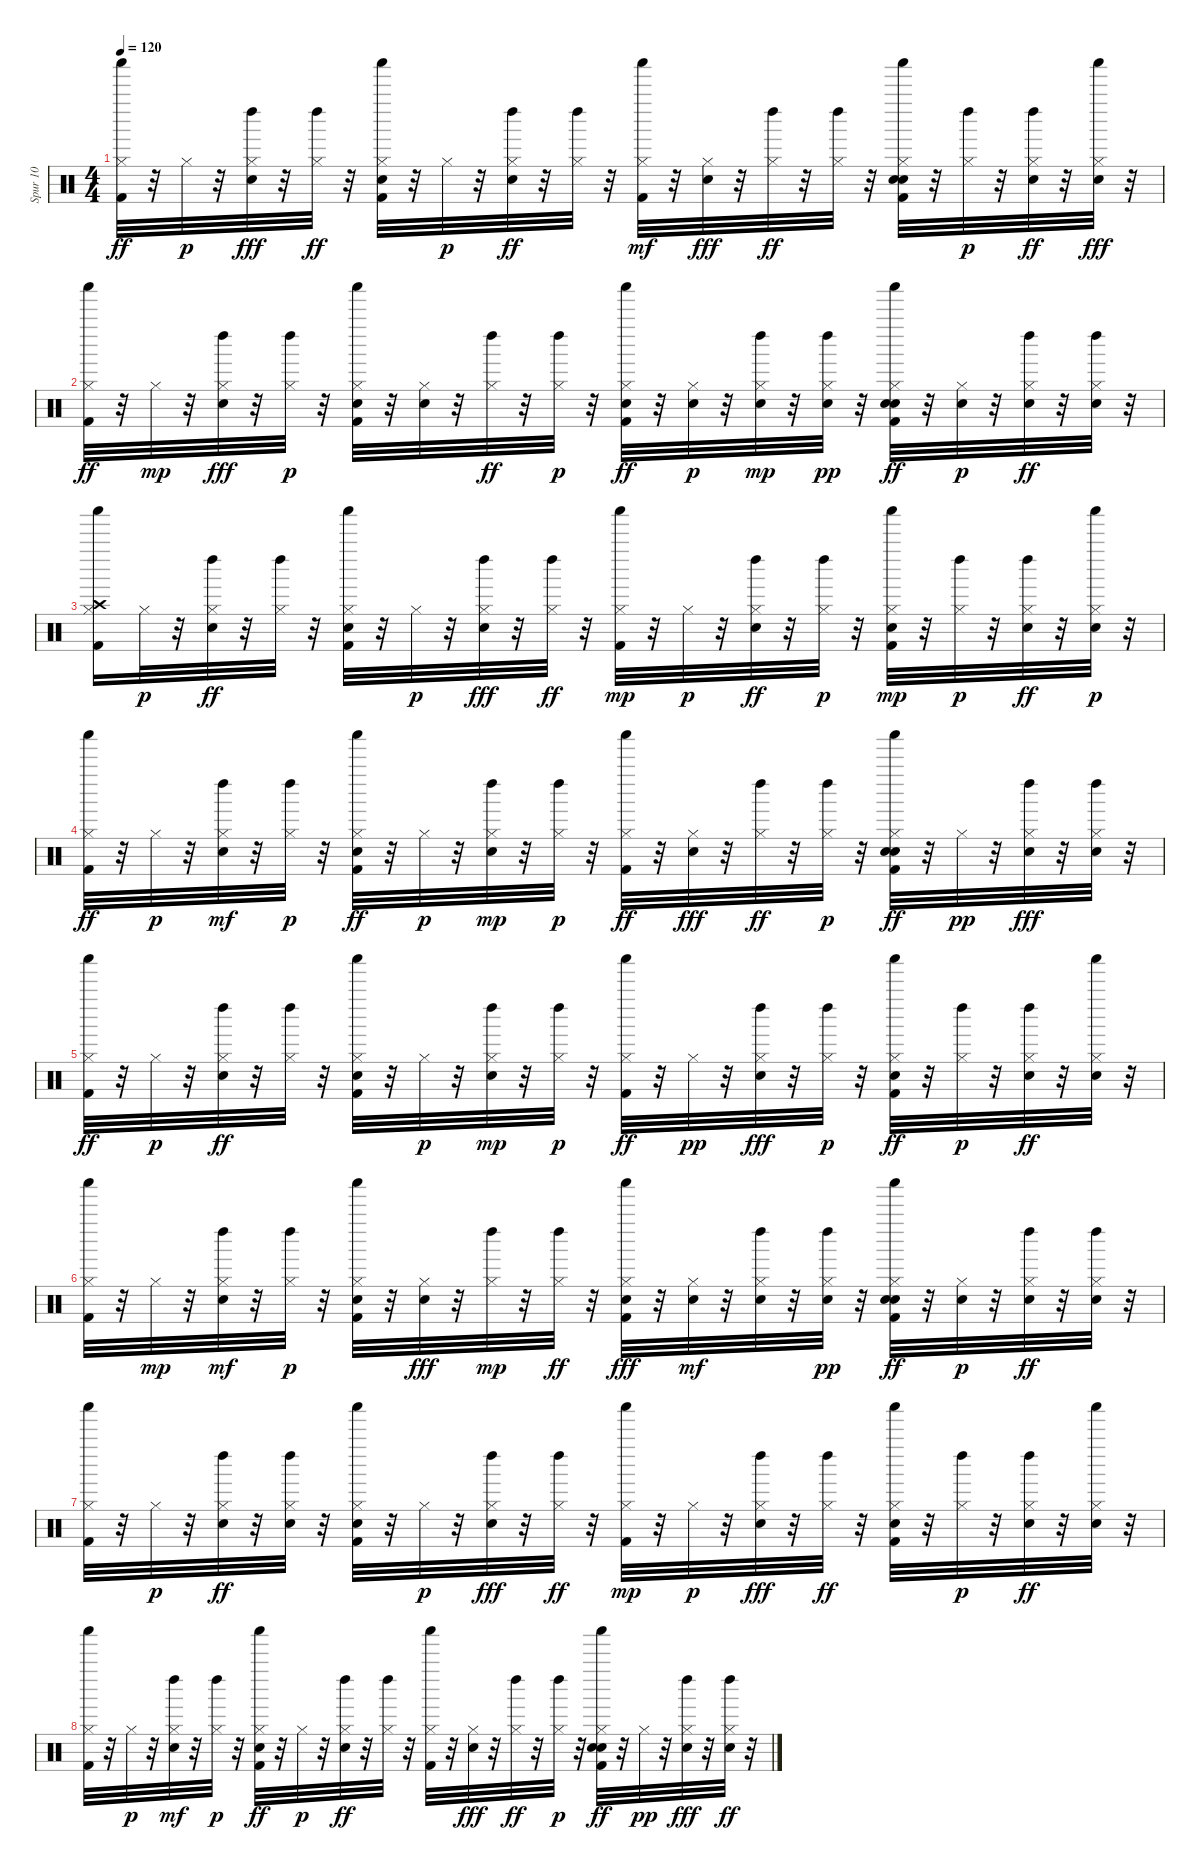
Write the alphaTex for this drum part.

\track ("Spur 10" "Spur 10") {instrument percussion}
\staff {score}
\articulation defaults
\ts (4 4)
\tempo 120
\clef neutral
\ks c
("Kick (hit) 2" "Hi-Hat (closed)" "Shaker (hit)").32{dy ff} r.32 "Hi-Hat (closed)".32{dy p} r.32 ("Hi-Hat (closed)" "Electric Snare (hit)" "Left Maraca (hit)").32{dy fff} r.32 ("Hi-Hat (closed)" "Left Maraca (hit)").32{dy ff} r.32 ("Snare (hit) 2" "Shaker (hit)" "Kick (hit) 2" "Hi-Hat (closed)").32 r.32 "Hi-Hat (closed)".32{dy p} r.32 ("Electric Snare (hit)" "Left Maraca (hit)" "Hi-Hat (closed)").32{dy ff} r.32 ("Hi-Hat (closed)" "Left Maraca (hit)").32 r.32 ("Kick (hit) 2" "Hi-Hat (closed)" "Shaker (hit)").32{dy mf} r.32 ("Hi-Hat (closed)" "Electric Snare (hit)").32{dy fff} r.32 ("Left Maraca (hit)" "Hi-Hat (closed)").32{dy ff} r.32 ("Hi-Hat (closed)" "Left Maraca (hit)").32 r.32 ("Snare (hit) 2" "Electric Snare (hit)" "Hi-Hat (closed)" "Kick (hit) 2" "Shaker (hit)").32 r.32 ("Left Maraca (hit)" "Hi-Hat (closed)").32{dy p} r.32 ("Electric Snare (hit)" "Hi-Hat (closed)" "Left Maraca (hit)").32{dy ff} r.32 ("Shaker (hit)" "Electric Snare (hit)" "Hi-Hat (closed)").32{dy fff} r.32 |
("Shaker (hit)" "Hi-Hat (closed)" "Kick (hit) 2").32{dy ff} r.32 "Hi-Hat (closed)".32{dy mp} r.32 ("Left Maraca (hit)" "Hi-Hat (closed)" "Electric Snare (hit)").32{dy fff} r.32 ("Hi-Hat (closed)" "Left Maraca (hit)").32{dy p} r.32 ("Shaker (hit)" "Snare (hit) 2" "Kick (hit) 2" "Hi-Hat (closed)").32 r.32 ("Electric Snare (hit)" "Hi-Hat (closed)").32 r.32 ("Left Maraca (hit)" "Hi-Hat (closed)").32{dy ff} r.32 ("Left Maraca (hit)" "Hi-Hat (closed)").32{dy p} r.32 ("Shaker (hit)" "Electric Snare (hit)" "Hi-Hat (closed)" "Kick (hit) 2").32{dy ff} r.32 ("Electric Snare (hit)" "Hi-Hat (closed)").32{dy p} r.32 ("Hi-Hat (closed)" "Electric Snare (hit)" "Left Maraca (hit)").32{dy mp} r.32 ("Electric Snare (hit)" "Left Maraca (hit)" "Hi-Hat (closed)").32{dy pp} r.32 ("Shaker (hit)" "Hi-Hat (closed)" "Kick (hit) 2" "Electric Snare (hit)" "Snare (hit) 2").32{dy ff} r.32 ("Electric Snare (hit)" "Hi-Hat (closed)").32{dy p} r.32 ("Left Maraca (hit)" "Electric Snare (hit)" "Hi-Hat (closed)").32{dy ff} r.32 ("Hi-Hat (closed)" "Electric Snare (hit)" "Left Maraca (hit)").32 r.32 |
("Crash high (hit)" "Shaker (hit)" "Hi-Hat (closed)" "Kick (hit) 2").16 "Hi-Hat (closed)".32{dy p} r.32 ("Left Maraca (hit)" "Electric Snare (hit)" "Hi-Hat (closed)").32{dy ff} r.32 ("Hi-Hat (closed)" "Left Maraca (hit)").32 r.32 ("Snare (hit) 2" "Hi-Hat (closed)" "Shaker (hit)" "Kick (hit) 2").32 r.32 "Hi-Hat (closed)".32{dy p} r.32 ("Left Maraca (hit)" "Hi-Hat (closed)" "Electric Snare (hit)").32{dy fff} r.32 ("Hi-Hat (closed)" "Left Maraca (hit)").32{dy ff} r.32 ("Shaker (hit)" "Kick (hit) 2" "Hi-Hat (closed)").32{dy mp} r.32 "Hi-Hat (closed)".32{dy p} r.32 ("Left Maraca (hit)" "Electric Snare (hit)" "Hi-Hat (closed)").32{dy ff} r.32 ("Left Maraca (hit)" "Hi-Hat (closed)").32{dy p} r.32 ("Kick (hit) 2" "Snare (hit) 2" "Hi-Hat (closed)" "Shaker (hit)").32{dy mp} r.32 ("Left Maraca (hit)" "Hi-Hat (closed)").32{dy p} r.32 ("Electric Snare (hit)" "Hi-Hat (closed)" "Left Maraca (hit)").32{dy ff} r.32 ("Shaker (hit)" "Electric Snare (hit)" "Hi-Hat (closed)").32{dy p} r.32 |
("Shaker (hit)" "Hi-Hat (closed)" "Kick (hit) 2").32{dy ff} r.32 "Hi-Hat (closed)".32{dy p} r.32 ("Electric Snare (hit)" "Hi-Hat (closed)" "Left Maraca (hit)").32{dy mf} r.32 ("Hi-Hat (closed)" "Left Maraca (hit)").32{dy p} r.32 ("Hi-Hat (closed)" "Snare (hit) 2" "Shaker (hit)" "Kick (hit) 2").32{dy ff} r.32 "Hi-Hat (closed)".32{dy p} r.32 ("Hi-Hat (closed)" "Electric Snare (hit)" "Left Maraca (hit)").32{dy mp} r.32 ("Left Maraca (hit)" "Hi-Hat (closed)").32{dy p} r.32 ("Hi-Hat (closed)" "Kick (hit) 2" "Shaker (hit)").32{dy ff} r.32 ("Hi-Hat (closed)" "Electric Snare (hit)").32{dy fff} r.32 ("Left Maraca (hit)" "Hi-Hat (closed)").32{dy ff} r.32 ("Left Maraca (hit)" "Hi-Hat (closed)").32{dy p} r.32 ("Electric Snare (hit)" "Kick (hit) 2" "Snare (hit) 2" "Shaker (hit)" "Hi-Hat (closed)").32{dy ff} r.32 "Hi-Hat (closed)".32{dy pp} r.32 ("Left Maraca (hit)" "Hi-Hat (closed)" "Electric Snare (hit)").32{dy fff} r.32 ("Left Maraca (hit)" "Hi-Hat (closed)" "Electric Snare (hit)").32 r.32 |
("Kick (hit) 2" "Hi-Hat (closed)" "Shaker (hit)").32{dy ff} r.32 "Hi-Hat (closed)".32{dy p} r.32 ("Electric Snare (hit)" "Left Maraca (hit)" "Hi-Hat (closed)").32{dy ff} r.32 ("Hi-Hat (closed)" "Left Maraca (hit)").32 r.32 ("Snare (hit) 2" "Kick (hit) 2" "Shaker (hit)" "Hi-Hat (closed)").32 r.32 "Hi-Hat (closed)".32{dy p} r.32 ("Hi-Hat (closed)" "Electric Snare (hit)" "Left Maraca (hit)").32{dy mp} r.32 ("Left Maraca (hit)" "Hi-Hat (closed)").32{dy p} r.32 ("Hi-Hat (closed)" "Shaker (hit)" "Kick (hit) 2").32{dy ff} r.32 "Hi-Hat (closed)".32{dy pp} r.32 ("Hi-Hat (closed)" "Electric Snare (hit)" "Left Maraca (hit)").32{dy fff} r.32 ("Left Maraca (hit)" "Hi-Hat (closed)").32{dy p} r.32 ("Hi-Hat (closed)" "Kick (hit) 2" "Snare (hit) 2" "Shaker (hit)").32{dy ff} r.32 ("Hi-Hat (closed)" "Left Maraca (hit)").32{dy p} r.32 ("Electric Snare (hit)" "Hi-Hat (closed)" "Left Maraca (hit)").32{dy ff} r.32 ("Shaker (hit)" "Hi-Hat (closed)" "Electric Snare (hit)").32 r.32 |
("Shaker (hit)" "Hi-Hat (closed)" "Kick (hit) 2").32 r.32 "Hi-Hat (closed)".32{dy mp} r.32 ("Electric Snare (hit)" "Hi-Hat (closed)" "Left Maraca (hit)").32{dy mf} r.32 ("Hi-Hat (closed)" "Left Maraca (hit)").32{dy p} r.32 ("Kick (hit) 2" "Shaker (hit)" "Snare (hit) 2" "Hi-Hat (closed)").32 r.32 ("Hi-Hat (closed)" "Electric Snare (hit)").32{dy fff} r.32 ("Hi-Hat (closed)" "Left Maraca (hit)").32{dy mp} r.32 ("Hi-Hat (closed)" "Left Maraca (hit)").32{dy ff} r.32 ("Kick (hit) 2" "Hi-Hat (closed)" "Electric Snare (hit)" "Shaker (hit)").32{dy fff} r.32 ("Hi-Hat (closed)" "Electric Snare (hit)").32{dy mf} r.32 ("Hi-Hat (closed)" "Left Maraca (hit)" "Electric Snare (hit)").32 r.32 ("Left Maraca (hit)" "Electric Snare (hit)" "Hi-Hat (closed)").32{dy pp} r.32 ("Shaker (hit)" "Hi-Hat (closed)" "Snare (hit) 2" "Electric Snare (hit)" "Kick (hit) 2").32{dy ff} r.32 ("Electric Snare (hit)" "Hi-Hat (closed)").32{dy p} r.32 ("Left Maraca (hit)" "Electric Snare (hit)" "Hi-Hat (closed)").32{dy ff} r.32 ("Electric Snare (hit)" "Hi-Hat (closed)" "Left Maraca (hit)").32 r.32 |
("Hi-Hat (closed)" "Kick (hit) 2" "Shaker (hit)").32 r.32 "Hi-Hat (closed)".32{dy p} r.32 ("Left Maraca (hit)" "Hi-Hat (closed)" "Electric Snare (hit)").32{dy ff} r.32 ("Hi-Hat (closed)" "Electric Snare (hit)" "Left Maraca (hit)").32 r.32 ("Hi-Hat (closed)" "Kick (hit) 2" "Shaker (hit)" "Snare (hit) 2").32 r.32 "Hi-Hat (closed)".32{dy p} r.32 ("Left Maraca (hit)" "Hi-Hat (closed)" "Electric Snare (hit)").32{dy fff} r.32 ("Hi-Hat (closed)" "Left Maraca (hit)").32{dy ff} r.32 ("Kick (hit) 2" "Shaker (hit)" "Hi-Hat (closed)").32{dy mp} r.32 "Hi-Hat (closed)".32{dy p} r.32 ("Hi-Hat (closed)" "Left Maraca (hit)" "Electric Snare (hit)").32{dy fff} r.32 ("Hi-Hat (closed)" "Left Maraca (hit)").32{dy ff} r.32 ("Kick (hit) 2" "Hi-Hat (closed)" "Shaker (hit)" "Snare (hit) 2").32 r.32 ("Hi-Hat (closed)" "Left Maraca (hit)").32{dy p} r.32 ("Hi-Hat (closed)" "Electric Snare (hit)" "Left Maraca (hit)").32{dy ff} r.32 ("Hi-Hat (closed)" "Shaker (hit)" "Electric Snare (hit)").32 r.32 |
("Hi-Hat (closed)" "Shaker (hit)" "Kick (hit) 2").32 r.32 "Hi-Hat (closed)".32{dy p} r.32 ("Hi-Hat (closed)" "Electric Snare (hit)" "Left Maraca (hit)").32{dy mf} r.32 ("Left Maraca (hit)" "Hi-Hat (closed)").32{dy p} r.32 ("Hi-Hat (closed)" "Snare (hit) 2" "Kick (hit) 2" "Shaker (hit)").32{dy ff} r.32 "Hi-Hat (closed)".32{dy p} r.32 ("Left Maraca (hit)" "Electric Snare (hit)" "Hi-Hat (closed)").32{dy ff} r.32 ("Hi-Hat (closed)" "Left Maraca (hit)").32 r.32 ("Shaker (hit)" "Kick (hit) 2" "Hi-Hat (closed)").32 r.32 ("Hi-Hat (closed)" "Electric Snare (hit)").32{dy fff} r.32 ("Left Maraca (hit)" "Hi-Hat (closed)").32{dy ff} r.32 ("Left Maraca (hit)" "Hi-Hat (closed)").32{dy p} r.32 ("Snare (hit) 2" "Electric Snare (hit)" "Kick (hit) 2" "Hi-Hat (closed)" "Shaker (hit)").32{dy ff} r.32 "Hi-Hat (closed)".32{dy pp} r.32 ("Left Maraca (hit)" "Hi-Hat (closed)" "Electric Snare (hit)").32{dy fff} r.32 ("Hi-Hat (closed)" "Left Maraca (hit)" "Electric Snare (hit)").32{dy ff} r.32
